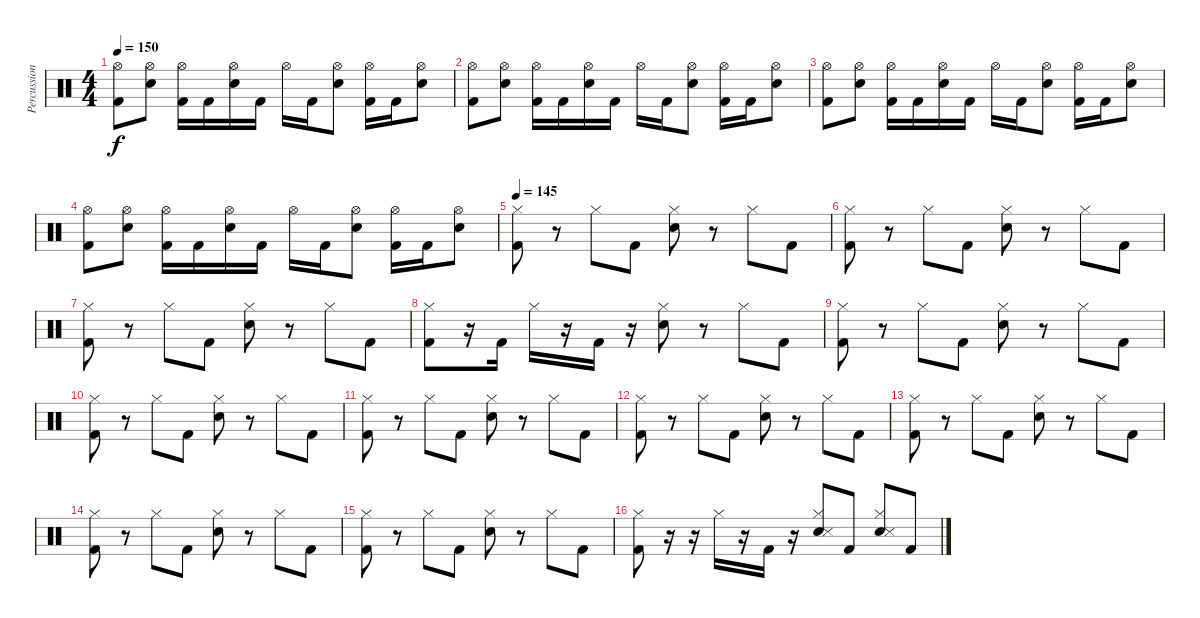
\track ("Percussions" "Percussion") {instrument percussion}
\staff {score}
\articulation defaults
\ts (4 4)
\tempo 150
\clef neutral
\ks c
("Hi-Hat (open)" "Kick (hit) 2").8{dy f} ("Hi-Hat (open)" "Snare (hit) 2").8 ("Hi-Hat (open)" "Kick (hit) 2").16 "Kick (hit) 2".16 ("Hi-Hat (open)" "Snare (hit) 2").16 "Kick (hit) 2".16 "Hi-Hat (open)".16 "Kick (hit) 2".16 ("Hi-Hat (open)" "Snare (hit) 2").8 ("Hi-Hat (open)" "Kick (hit) 2").16 "Kick (hit) 2".16 ("Hi-Hat (open)" "Snare (hit) 2").8 |
("Hi-Hat (open)" "Kick (hit) 2").8 ("Hi-Hat (open)" "Snare (hit) 2").8 ("Hi-Hat (open)" "Kick (hit) 2").16 "Kick (hit) 2".16 ("Hi-Hat (open)" "Snare (hit) 2").16 "Kick (hit) 2".16 "Hi-Hat (open)".16 "Kick (hit) 2".16 ("Hi-Hat (open)" "Snare (hit) 2").8 ("Hi-Hat (open)" "Kick (hit) 2").16 "Kick (hit) 2".16 ("Hi-Hat (open)" "Snare (hit) 2").8 |
("Hi-Hat (open)" "Kick (hit) 2").8 ("Hi-Hat (open)" "Snare (hit) 2").8 ("Hi-Hat (open)" "Kick (hit) 2").16 "Kick (hit) 2".16 ("Hi-Hat (open)" "Snare (hit) 2").16 "Kick (hit) 2".16 "Hi-Hat (open)".16 "Kick (hit) 2".16 ("Hi-Hat (open)" "Snare (hit) 2").8 ("Hi-Hat (open)" "Kick (hit) 2").16 "Kick (hit) 2".16 ("Hi-Hat (open)" "Snare (hit) 2").8 |
("Hi-Hat (open)" "Kick (hit) 2").8 ("Hi-Hat (open)" "Snare (hit) 2").8 ("Hi-Hat (open)" "Kick (hit) 2").16 "Kick (hit) 2".16 ("Hi-Hat (open)" "Snare (hit) 2").16 "Kick (hit) 2".16 "Hi-Hat (open)".16 "Kick (hit) 2".16 ("Hi-Hat (open)" "Snare (hit) 2").8 ("Hi-Hat (open)" "Kick (hit) 2").16 "Kick (hit) 2".16 ("Hi-Hat (open)" "Snare (hit) 2").8 |
\tempo 145
("Hi-Hat (closed)" "Kick (hit) 2").8 r.8 "Hi-Hat (closed)".8 "Kick (hit) 2".8 ("Hi-Hat (closed)" "Snare (hit) 2").8 r.8 "Hi-Hat (closed)".8 "Kick (hit) 2".8 |
("Hi-Hat (closed)" "Kick (hit) 2").8 r.8 "Hi-Hat (closed)".8 "Kick (hit) 2".8 ("Hi-Hat (closed)" "Snare (hit) 2").8 r.8 "Hi-Hat (closed)".8 "Kick (hit) 2".8 |
("Hi-Hat (closed)" "Kick (hit) 2").8 r.8 "Hi-Hat (closed)".8 "Kick (hit) 2".8 ("Hi-Hat (closed)" "Snare (hit) 2").8 r.8 "Hi-Hat (closed)".8 "Kick (hit) 2".8 |
("Hi-Hat (closed)" "Kick (hit) 2").8 r.16 "Kick (hit) 2".16 "Hi-Hat (closed)".16 r.16 "Kick (hit) 2".16 r.16 ("Hi-Hat (closed)" "Snare (hit) 2").8 r.8 "Hi-Hat (closed)".8 "Kick (hit) 2".8 |
("Hi-Hat (closed)" "Kick (hit) 2").8 r.8 "Hi-Hat (closed)".8 "Kick (hit) 2".8 ("Hi-Hat (closed)" "Snare (hit) 2").8 r.8 "Hi-Hat (closed)".8 "Kick (hit) 2".8 |
("Hi-Hat (closed)" "Kick (hit) 2").8 r.8 "Hi-Hat (closed)".8 "Kick (hit) 2".8 ("Hi-Hat (closed)" "Snare (hit) 2").8 r.8 "Hi-Hat (closed)".8 "Kick (hit) 2".8 |
("Hi-Hat (closed)" "Kick (hit) 2").8 r.8 "Hi-Hat (closed)".8 "Kick (hit) 2".8 ("Hi-Hat (closed)" "Snare (hit) 2").8 r.8 "Hi-Hat (closed)".8 "Kick (hit) 2".8 |
("Hi-Hat (closed)" "Kick (hit) 2").8 r.8 "Hi-Hat (closed)".8 "Kick (hit) 2".8 ("Hi-Hat (closed)" "Snare (hit) 2").8 r.8 "Hi-Hat (closed)".8 "Kick (hit) 2".8 |
("Hi-Hat (closed)" "Kick (hit) 2").8 r.8 "Hi-Hat (closed)".8 "Kick (hit) 2".8 ("Hi-Hat (closed)" "Snare (hit) 2").8 r.8 "Hi-Hat (closed)".8 "Kick (hit) 2".8 |
("Hi-Hat (closed)" "Kick (hit) 2").8 r.8 "Hi-Hat (closed)".8 "Kick (hit) 2".8 ("Hi-Hat (closed)" "Snare (hit) 2").8 r.8 "Hi-Hat (closed)".8 "Kick (hit) 2".8 |
("Hi-Hat (closed)" "Kick (hit) 2").8 r.8 "Hi-Hat (closed)".8 "Kick (hit) 2".8 ("Hi-Hat (closed)" "Snare (hit) 2").8 r.8 "Hi-Hat (closed)".8 "Kick (hit) 2".8 |
("Hi-Hat (closed)" "Kick (hit) 2").8 r.16 r.16 "Hi-Hat (closed)".16 r.16 "Kick (hit) 2".16 r.16 ("Hi-Hat (closed)" "Snare (hit) 2" "Snare (side stick) 3").8 "Kick (hit) 2".8 ("Hi-Hat (closed)" "Snare (hit) 2" "Snare (side stick) 3").8 "Kick (hit) 2".8
